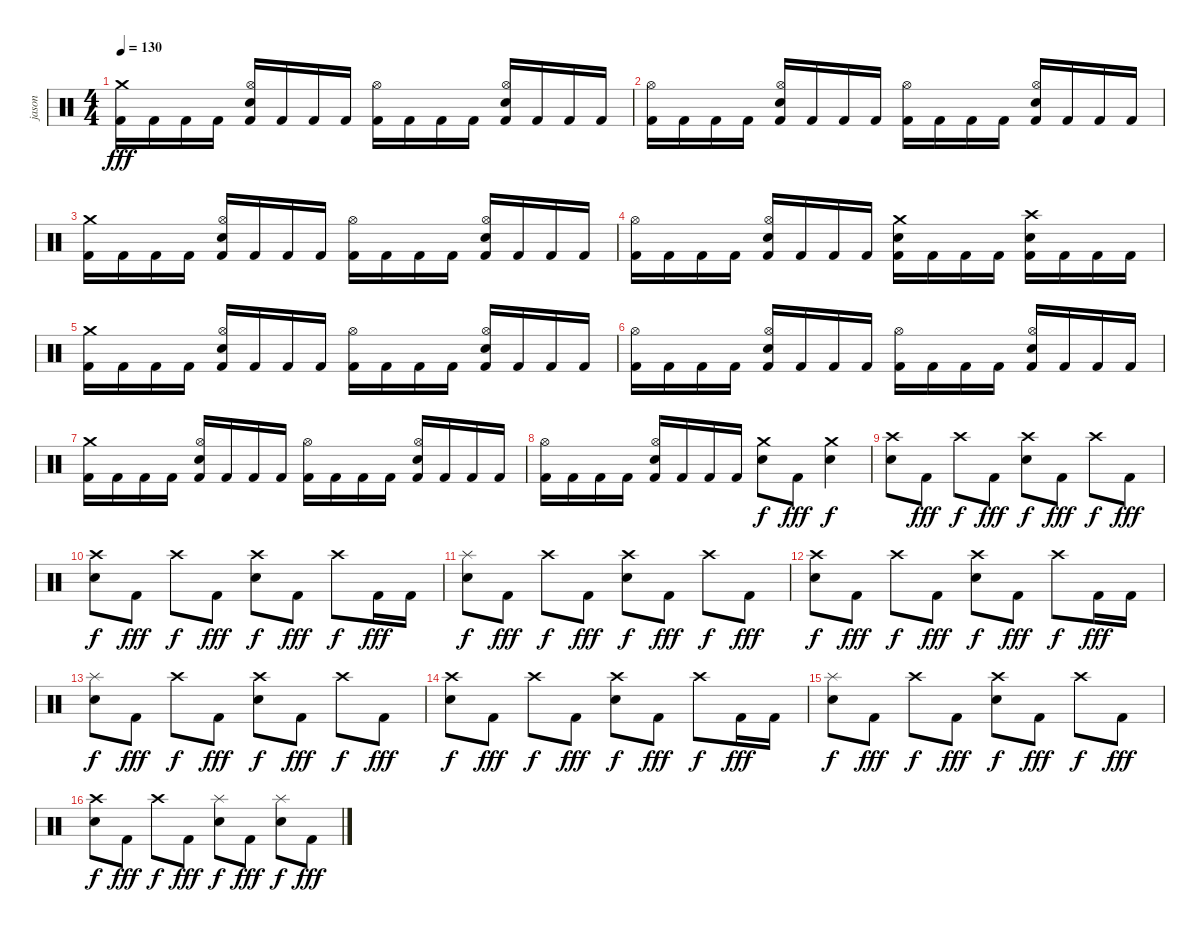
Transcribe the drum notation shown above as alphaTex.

\track ("jason" "jason") {solo instrument percussion}
\staff {score}
\articulation defaults
\ts (4 4)
\tempo 130
\clef neutral
\ks c
("Crash medium (hit)" "Kick (hit) 2").16{dy fff} "Kick (hit) 2".16 "Kick (hit) 2".16 "Kick (hit) 2".16 ("Hi-Hat (open)" "Snare (hit) 2" "Kick (hit) 2").16 "Kick (hit) 2".16 "Kick (hit) 2".16 "Kick (hit) 2".16 ("Hi-Hat (open)" "Kick (hit) 2").16 "Kick (hit) 2".16 "Kick (hit) 2".16 "Kick (hit) 2".16 ("Hi-Hat (open)" "Snare (hit) 2" "Kick (hit) 2").16 "Kick (hit) 2".16 "Kick (hit) 2".16 "Kick (hit) 2".16 |
("Hi-Hat (open)" "Kick (hit) 2").16 "Kick (hit) 2".16 "Kick (hit) 2".16 "Kick (hit) 2".16 ("Hi-Hat (open)" "Snare (hit) 2" "Kick (hit) 2").16 "Kick (hit) 2".16 "Kick (hit) 2".16 "Kick (hit) 2".16 ("Hi-Hat (open)" "Kick (hit) 2").16 "Kick (hit) 2".16 "Kick (hit) 2".16 "Kick (hit) 2".16 ("Hi-Hat (open)" "Snare (hit) 2" "Kick (hit) 2").16 "Kick (hit) 2".16 "Kick (hit) 2".16 "Kick (hit) 2".16 |
("Crash medium (hit)" "Kick (hit) 2").16 "Kick (hit) 2".16 "Kick (hit) 2".16 "Kick (hit) 2".16 ("Hi-Hat (open)" "Snare (hit) 2" "Kick (hit) 2").16 "Kick (hit) 2".16 "Kick (hit) 2".16 "Kick (hit) 2".16 ("Hi-Hat (open)" "Kick (hit) 2").16 "Kick (hit) 2".16 "Kick (hit) 2".16 "Kick (hit) 2".16 ("Hi-Hat (open)" "Snare (hit) 2" "Kick (hit) 2").16 "Kick (hit) 2".16 "Kick (hit) 2".16 "Kick (hit) 2".16 |
("Hi-Hat (open)" "Kick (hit) 2").16 "Kick (hit) 2".16 "Kick (hit) 2".16 "Kick (hit) 2".16 ("Hi-Hat (open)" "Snare (hit) 2" "Kick (hit) 2").16 "Kick (hit) 2".16 "Kick (hit) 2".16 "Kick (hit) 2".16 ("Crash medium (hit)" "Snare (hit) 2" "Kick (hit) 2").16 "Kick (hit) 2".16 "Kick (hit) 2".16 "Kick (hit) 2".16 ("Crash high (hit)" "Snare (hit) 2" "Kick (hit) 2").16 "Kick (hit) 2".16 "Kick (hit) 2".16 "Kick (hit) 2".16 |
("Crash medium (hit)" "Kick (hit) 2").16 "Kick (hit) 2".16 "Kick (hit) 2".16 "Kick (hit) 2".16 ("Hi-Hat (open)" "Snare (hit) 2" "Kick (hit) 2").16 "Kick (hit) 2".16 "Kick (hit) 2".16 "Kick (hit) 2".16 ("Hi-Hat (open)" "Kick (hit) 2").16 "Kick (hit) 2".16 "Kick (hit) 2".16 "Kick (hit) 2".16 ("Hi-Hat (open)" "Snare (hit) 2" "Kick (hit) 2").16 "Kick (hit) 2".16 "Kick (hit) 2".16 "Kick (hit) 2".16 |
("Hi-Hat (open)" "Kick (hit) 2").16 "Kick (hit) 2".16 "Kick (hit) 2".16 "Kick (hit) 2".16 ("Hi-Hat (open)" "Snare (hit) 2" "Kick (hit) 2").16 "Kick (hit) 2".16 "Kick (hit) 2".16 "Kick (hit) 2".16 ("Hi-Hat (open)" "Kick (hit) 2").16 "Kick (hit) 2".16 "Kick (hit) 2".16 "Kick (hit) 2".16 ("Hi-Hat (open)" "Snare (hit) 2" "Kick (hit) 2").16 "Kick (hit) 2".16 "Kick (hit) 2".16 "Kick (hit) 2".16 |
("Crash medium (hit)" "Kick (hit) 2").16 "Kick (hit) 2".16 "Kick (hit) 2".16 "Kick (hit) 2".16 ("Hi-Hat (open)" "Snare (hit) 2" "Kick (hit) 2").16 "Kick (hit) 2".16 "Kick (hit) 2".16 "Kick (hit) 2".16 ("Hi-Hat (open)" "Kick (hit) 2").16 "Kick (hit) 2".16 "Kick (hit) 2".16 "Kick (hit) 2".16 ("Hi-Hat (open)" "Snare (hit) 2" "Kick (hit) 2").16 "Kick (hit) 2".16 "Kick (hit) 2".16 "Kick (hit) 2".16 |
("Hi-Hat (open)" "Kick (hit) 2").16 "Kick (hit) 2".16 "Kick (hit) 2".16 "Kick (hit) 2".16 ("Hi-Hat (open)" "Snare (hit) 2" "Kick (hit) 2").16 "Kick (hit) 2".16 "Kick (hit) 2".16 "Kick (hit) 2".16 ("Crash medium (hit)" "Snare (hit) 2").8{dy f} "Kick (hit) 2".8{dy fff} ("Crash medium (hit)" "Snare (hit) 2").4{dy f} |
("Crash high (hit)" "Snare (hit) 2").8 "Kick (hit) 2".8{dy fff} "Crash high (hit)".8{dy f} "Kick (hit) 2".8{dy fff} ("Crash high (hit)" "Snare (hit) 2").8{dy f} "Kick (hit) 2".8{dy fff} "Crash high (hit)".8{dy f} "Kick (hit) 2".8{dy fff} |
("Crash high (hit)" "Snare (hit) 2").8{dy f} "Kick (hit) 2".8{dy fff} "Crash high (hit)".8{dy f} "Kick (hit) 2".8{dy fff} ("Crash high (hit)" "Snare (hit) 2").8{dy f} "Kick (hit) 2".8{dy fff} "Crash high (hit)".8{dy f} "Kick (hit) 2".16{dy fff} "Kick (hit) 2".16 |
("Splash (hit)" "Snare (hit) 2").8{dy f} "Kick (hit) 2".8{dy fff} "Crash high (hit)".8{dy f} "Kick (hit) 2".8{dy fff} ("Crash high (hit)" "Snare (hit) 2").8{dy f} "Kick (hit) 2".8{dy fff} "Crash high (hit)".8{dy f} "Kick (hit) 2".8{dy fff} |
("Crash high (hit)" "Snare (hit) 2").8{dy f} "Kick (hit) 2".8{dy fff} "Crash high (hit)".8{dy f} "Kick (hit) 2".8{dy fff} ("Crash high (hit)" "Snare (hit) 2").8{dy f} "Kick (hit) 2".8{dy fff} "Crash high (hit)".8{dy f} "Kick (hit) 2".16{dy fff} "Kick (hit) 2".16 |
("Splash (hit)" "Snare (hit) 2").8{dy f} "Kick (hit) 2".8{dy fff} "Crash high (hit)".8{dy f} "Kick (hit) 2".8{dy fff} ("Crash high (hit)" "Snare (hit) 2").8{dy f} "Kick (hit) 2".8{dy fff} "Crash high (hit)".8{dy f} "Kick (hit) 2".8{dy fff} |
("Crash high (hit)" "Snare (hit) 2").8{dy f} "Kick (hit) 2".8{dy fff} "Crash high (hit)".8{dy f} "Kick (hit) 2".8{dy fff} ("Crash high (hit)" "Snare (hit) 2").8{dy f} "Kick (hit) 2".8{dy fff} "Crash high (hit)".8{dy f} "Kick (hit) 2".16{dy fff} "Kick (hit) 2".16 |
("Splash (hit)" "Snare (hit) 2").8{dy f} "Kick (hit) 2".8{dy fff} "Crash high (hit)".8{dy f} "Kick (hit) 2".8{dy fff} ("Crash high (hit)" "Snare (hit) 2").8{dy f} "Kick (hit) 2".8{dy fff} "Crash high (hit)".8{dy f} "Kick (hit) 2".8{dy fff} |
("Crash high (hit)" "Snare (hit) 2").8{dy f} "Kick (hit) 2".8{dy fff} "Crash high (hit)".8{dy f} "Kick (hit) 2".8{dy fff} ("Splash (hit)" "Snare (hit) 2").8{dy f} "Kick (hit) 2".8{dy fff} ("Splash (hit)" "Snare (hit) 2").8{dy f} "Kick (hit) 2".8{dy fff}
